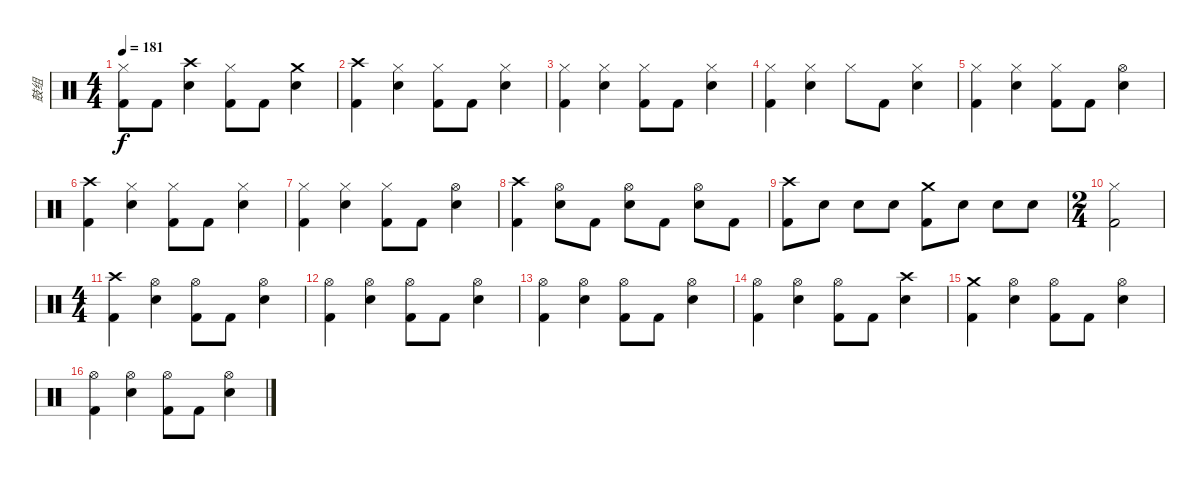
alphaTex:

\track ("鼓组" "鼓组") {instrument percussion}
\staff {score}
\articulation defaults
\ts (4 4)
\tempo 181
\clef neutral
\ks c
("Hi-Hat (closed)" "Kick (hit) 2").8{dy f} "Kick (hit) 2".8 ("Crash high (hit)" "Snare (hit) 2").4 ("Hi-Hat (closed)" "Kick (hit) 2").8 "Kick (hit) 2".8 ("Crash medium (hit)" "Snare (hit) 2").4 |
("Crash high (hit)" "Kick (hit) 2").4 ("Hi-Hat (closed)" "Snare (hit) 2").4 ("Hi-Hat (closed)" "Kick (hit) 2").8 "Kick (hit) 2".8 ("Hi-Hat (closed)" "Snare (hit) 2").4 |
("Hi-Hat (closed)" "Kick (hit) 2").4 ("Hi-Hat (closed)" "Snare (hit) 2").4 ("Hi-Hat (closed)" "Kick (hit) 2").8 "Kick (hit) 2".8 ("Hi-Hat (closed)" "Snare (hit) 2").4 |
("Hi-Hat (closed)" "Kick (hit) 2").4 ("Hi-Hat (closed)" "Snare (hit) 2").4 "Hi-Hat (closed)".8 "Kick (hit) 2".8 ("Hi-Hat (closed)" "Snare (hit) 2").4 |
("Hi-Hat (closed)" "Kick (hit) 2").4 ("Hi-Hat (closed)" "Snare (hit) 2").4 ("Hi-Hat (closed)" "Kick (hit) 2").8 "Kick (hit) 2".8 ("Hi-Hat (open)" "Snare (hit) 2").4 |
("Crash high (hit)" "Kick (hit) 2").4 ("Hi-Hat (closed)" "Snare (hit) 2").4 ("Hi-Hat (closed)" "Kick (hit) 2").8 "Kick (hit) 2".8 ("Hi-Hat (closed)" "Snare (hit) 2").4 |
("Hi-Hat (closed)" "Kick (hit) 2").4 ("Hi-Hat (closed)" "Snare (hit) 2").4 ("Hi-Hat (closed)" "Kick (hit) 2").8 "Kick (hit) 2".8 ("Hi-Hat (open)" "Snare (hit) 2").4 |
("Crash high (hit)" "Kick (hit) 2").4 ("Hi-Hat (open)" "Snare (hit) 2").8 "Kick (hit) 2".8 ("Hi-Hat (open)" "Snare (hit) 2").8 "Kick (hit) 2".8 ("Hi-Hat (open)" "Snare (hit) 2").8 "Kick (hit) 2".8 |
("Crash high (hit)" "Kick (hit) 2").8 "Snare (hit) 2".8 "Snare (hit) 2".8 "Snare (hit) 2".8 ("Crash medium (hit)" "Kick (hit) 2").8 "Snare (hit) 2".8 "Snare (hit) 2".8 "Snare (hit) 2".8 |
\ts (2 4)
("Hi-Hat (closed)" "Kick (hit) 2").2 |
\ts (4 4)
("Crash high (hit)" "Kick (hit) 2").4 ("Hi-Hat (open)" "Snare (hit) 2").4 ("Hi-Hat (open)" "Kick (hit) 2").8 "Kick (hit) 2".8 ("Hi-Hat (open)" "Snare (hit) 2").4 |
("Hi-Hat (open)" "Kick (hit) 2").4 ("Hi-Hat (open)" "Snare (hit) 2").4 ("Hi-Hat (open)" "Kick (hit) 2").8 "Kick (hit) 2".8 ("Hi-Hat (open)" "Snare (hit) 2").4 |
("Hi-Hat (open)" "Kick (hit) 2").4 ("Hi-Hat (open)" "Snare (hit) 2").4 ("Hi-Hat (open)" "Kick (hit) 2").8 "Kick (hit) 2".8 ("Hi-Hat (open)" "Snare (hit) 2").4 |
("Hi-Hat (open)" "Kick (hit) 2").4 ("Hi-Hat (open)" "Snare (hit) 2").4 ("Hi-Hat (open)" "Kick (hit) 2").8 "Kick (hit) 2".8 ("Crash high (hit)" "Snare (hit) 2").4 |
("Crash medium (hit)" "Kick (hit) 2").4 ("Hi-Hat (open)" "Snare (hit) 2").4 ("Hi-Hat (open)" "Kick (hit) 2").8 "Kick (hit) 2".8 ("Hi-Hat (open)" "Snare (hit) 2").4 |
("Hi-Hat (open)" "Kick (hit) 2").4 ("Hi-Hat (open)" "Snare (hit) 2").4 ("Hi-Hat (open)" "Kick (hit) 2").8 "Kick (hit) 2".8 ("Hi-Hat (open)" "Snare (hit) 2").4
